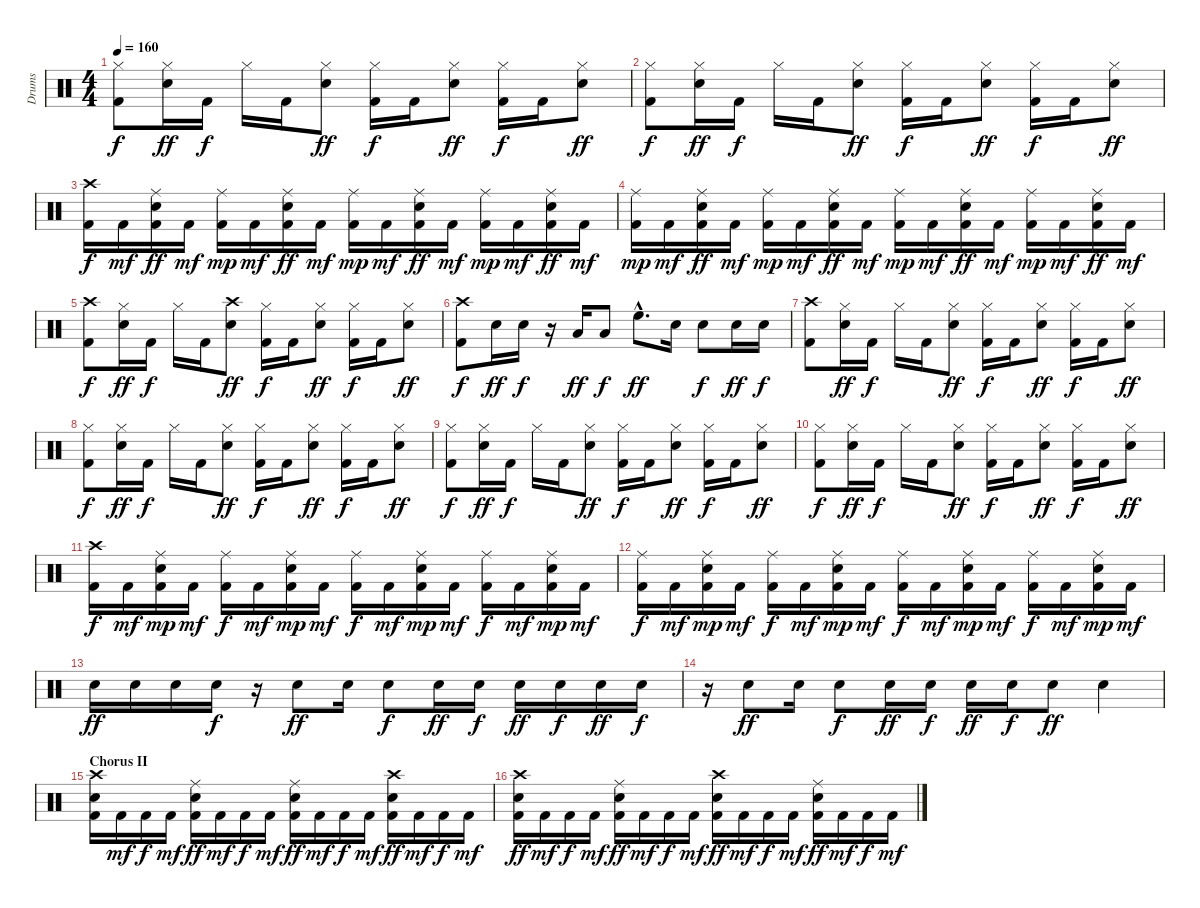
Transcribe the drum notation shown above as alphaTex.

\track ("Drums" "Drums") {instrument percussion}
\staff {score}
\articulation defaults
\ts (4 4)
\tempo 160
\clef neutral
\ks c
("Hi-Hat (closed)" "Kick (hit) 2").8{dy f} ("Hi-Hat (closed)" "Snare (hit) 2").16{dy ff} "Kick (hit) 2".16{dy f} "Hi-Hat (closed)".16 "Kick (hit) 2".16 ("Hi-Hat (closed)" "Snare (hit) 2").8{dy ff} ("Hi-Hat (closed)" "Kick (hit) 2").16{dy f} "Kick (hit) 2".16 ("Hi-Hat (closed)" "Snare (hit) 2").8{dy ff} ("Hi-Hat (closed)" "Kick (hit) 2").16{dy f} "Kick (hit) 2".16 ("Hi-Hat (closed)" "Snare (hit) 2").8{dy ff} |
("Hi-Hat (closed)" "Kick (hit) 2").8{dy f} ("Hi-Hat (closed)" "Snare (hit) 2").16{dy ff} "Kick (hit) 2".16{dy f} "Hi-Hat (closed)".16 "Kick (hit) 2".16 ("Hi-Hat (closed)" "Snare (hit) 2").8{dy ff} ("Hi-Hat (closed)" "Kick (hit) 2").16{dy f} "Kick (hit) 2".16 ("Hi-Hat (closed)" "Snare (hit) 2").8{dy ff} ("Hi-Hat (closed)" "Kick (hit) 2").16{dy f} "Kick (hit) 2".16 ("Hi-Hat (closed)" "Snare (hit) 2").8{dy ff} |
("Crash high (hit)" "Kick (hit) 2").16{dy f} "Kick (hit) 2".16{dy mf} ("Snare (hit) 2" "Ride (middle)" "Kick (hit) 2").16{dy ff} "Kick (hit) 2".16{dy mf} ("Ride (middle)" "Kick (hit) 2").16{dy mp} "Kick (hit) 2".16{dy mf} ("Snare (hit) 2" "Ride (middle)" "Kick (hit) 2").16{dy ff} "Kick (hit) 2".16{dy mf} ("Ride (middle)" "Kick (hit) 2").16{dy mp} "Kick (hit) 2".16{dy mf} ("Snare (hit) 2" "Ride (middle)" "Kick (hit) 2").16{dy ff} "Kick (hit) 2".16{dy mf} ("Ride (middle)" "Kick (hit) 2").16{dy mp} "Kick (hit) 2".16{dy mf} ("Snare (hit) 2" "Ride (middle)" "Kick (hit) 2").16{dy ff} "Kick (hit) 2".16{dy mf} |
("Ride (middle)" "Kick (hit) 2").16{dy mp} "Kick (hit) 2".16{dy mf} ("Snare (hit) 2" "Ride (middle)" "Kick (hit) 2").16{dy ff} "Kick (hit) 2".16{dy mf} ("Ride (middle)" "Kick (hit) 2").16{dy mp} "Kick (hit) 2".16{dy mf} ("Snare (hit) 2" "Ride (middle)" "Kick (hit) 2").16{dy ff} "Kick (hit) 2".16{dy mf} ("Ride (middle)" "Kick (hit) 2").16{dy mp} "Kick (hit) 2".16{dy mf} ("Snare (hit) 2" "Ride (middle)" "Kick (hit) 2").16{dy ff} "Kick (hit) 2".16{dy mf} ("Ride (middle)" "Kick (hit) 2").16{dy mp} "Kick (hit) 2".16{dy mf} ("Snare (hit) 2" "Ride (middle)" "Kick (hit) 2").16{dy ff} "Kick (hit) 2".16{dy mf} |
("Crash high (hit)" "Kick (hit) 2").8{dy f} ("Hi-Hat (closed)" "Snare (hit) 2").16{dy ff} "Kick (hit) 2".16{dy f} "Hi-Hat (closed)".16 "Kick (hit) 2".16 ("Crash high (hit)" "Snare (hit) 2").8{dy ff} ("Hi-Hat (closed)" "Kick (hit) 2").16{dy f} "Kick (hit) 2".16 ("Hi-Hat (closed)" "Snare (hit) 2").8{dy ff} ("Hi-Hat (closed)" "Kick (hit) 2").16{dy f} "Kick (hit) 2".16 ("Hi-Hat (closed)" "Snare (hit) 2").8{dy ff} |
("Crash high (hit)" "Kick (hit) 2").8{dy f} "Snare (hit) 2".16{dy ff} "Snare (hit) 2".16{dy f} r.16 "Low Tom (hit)".16{dy ff} "Low Tom (hit)".8{dy f} "High Floor Tom (hit)"{hac}.8{d dy ff} "Snare (hit) 2".16 "Snare (hit) 2".8{dy f} "Snare (hit) 2".16{dy ff} "Snare (hit) 2".16{dy f} |
("Crash high (hit)" "Kick (hit) 2").8 ("Hi-Hat (closed)" "Snare (hit) 2").16{dy ff} "Kick (hit) 2".16{dy f} "Hi-Hat (closed)".16 "Kick (hit) 2".16 ("Hi-Hat (closed)" "Snare (hit) 2").8{dy ff} ("Hi-Hat (closed)" "Kick (hit) 2").16{dy f} "Kick (hit) 2".16 ("Hi-Hat (closed)" "Snare (hit) 2").8{dy ff} ("Hi-Hat (closed)" "Kick (hit) 2").16{dy f} "Kick (hit) 2".16 ("Hi-Hat (closed)" "Snare (hit) 2").8{dy ff} |
("Hi-Hat (closed)" "Kick (hit) 2").8{dy f} ("Hi-Hat (closed)" "Snare (hit) 2").16{dy ff} "Kick (hit) 2".16{dy f} "Hi-Hat (closed)".16 "Kick (hit) 2".16 ("Hi-Hat (closed)" "Snare (hit) 2").8{dy ff} ("Hi-Hat (closed)" "Kick (hit) 2").16{dy f} "Kick (hit) 2".16 ("Hi-Hat (closed)" "Snare (hit) 2").8{dy ff} ("Hi-Hat (closed)" "Kick (hit) 2").16{dy f} "Kick (hit) 2".16 ("Hi-Hat (closed)" "Snare (hit) 2").8{dy ff} |
("Hi-Hat (closed)" "Kick (hit) 2").8{dy f} ("Hi-Hat (closed)" "Snare (hit) 2").16{dy ff} "Kick (hit) 2".16{dy f} "Hi-Hat (closed)".16 "Kick (hit) 2".16 ("Hi-Hat (closed)" "Snare (hit) 2").8{dy ff} ("Hi-Hat (closed)" "Kick (hit) 2").16{dy f} "Kick (hit) 2".16 ("Hi-Hat (closed)" "Snare (hit) 2").8{dy ff} ("Hi-Hat (closed)" "Kick (hit) 2").16{dy f} "Kick (hit) 2".16 ("Hi-Hat (closed)" "Snare (hit) 2").8{dy ff} |
("Hi-Hat (closed)" "Kick (hit) 2").8{dy f} ("Hi-Hat (closed)" "Snare (hit) 2").16{dy ff} "Kick (hit) 2".16{dy f} "Hi-Hat (closed)".16 "Kick (hit) 2".16 ("Hi-Hat (closed)" "Snare (hit) 2").8{dy ff} ("Hi-Hat (closed)" "Kick (hit) 2").16{dy f} "Kick (hit) 2".16 ("Hi-Hat (closed)" "Snare (hit) 2").8{dy ff} ("Hi-Hat (closed)" "Kick (hit) 2").16{dy f} "Kick (hit) 2".16 ("Hi-Hat (closed)" "Snare (hit) 2").8{dy ff} |
("Crash high (hit)" "Kick (hit) 2").16{dy f} "Kick (hit) 2".16{dy mf} ("Snare (hit) 2" "Ride (middle)" "Kick (hit) 2").16{dy mp} "Kick (hit) 2".16{dy mf} ("Ride (middle)" "Kick (hit) 2").16{dy f} "Kick (hit) 2".16{dy mf} ("Snare (hit) 2" "Ride (middle)" "Kick (hit) 2").16{dy mp} "Kick (hit) 2".16{dy mf} ("Ride (middle)" "Kick (hit) 2").16{dy f} "Kick (hit) 2".16{dy mf} ("Snare (hit) 2" "Ride (middle)" "Kick (hit) 2").16{dy mp} "Kick (hit) 2".16{dy mf} ("Ride (middle)" "Kick (hit) 2").16{dy f} "Kick (hit) 2".16{dy mf} ("Snare (hit) 2" "Ride (middle)" "Kick (hit) 2").16{dy mp} "Kick (hit) 2".16{dy mf} |
("Ride (middle)" "Kick (hit) 2").16{dy f} "Kick (hit) 2".16{dy mf} ("Snare (hit) 2" "Ride (middle)" "Kick (hit) 2").16{dy mp} "Kick (hit) 2".16{dy mf} ("Ride (middle)" "Kick (hit) 2").16{dy f} "Kick (hit) 2".16{dy mf} ("Snare (hit) 2" "Ride (middle)" "Kick (hit) 2").16{dy mp} "Kick (hit) 2".16{dy mf} ("Ride (middle)" "Kick (hit) 2").16{dy f} "Kick (hit) 2".16{dy mf} ("Snare (hit) 2" "Ride (middle)" "Kick (hit) 2").16{dy mp} "Kick (hit) 2".16{dy mf} ("Ride (middle)" "Kick (hit) 2").16{dy f} "Kick (hit) 2".16{dy mf} ("Snare (hit) 2" "Ride (middle)" "Kick (hit) 2").16{dy mp} "Kick (hit) 2".16{dy mf} |
"Snare (hit) 2".16{dy ff} "Snare (hit) 2".16 "Snare (hit) 2".16 "Snare (hit) 2".16{dy f} r.16 "Snare (hit) 2".8{dy ff} "Snare (hit) 2".16 "Snare (hit) 2".8{dy f} "Snare (hit) 2".16{dy ff} "Snare (hit) 2".16{dy f} "Snare (hit) 2".16{dy ff} "Snare (hit) 2".16{dy f} "Snare (hit) 2".16{dy ff} "Snare (hit) 2".16{dy f} |
r.16 "Snare (hit) 2".8{dy ff} "Snare (hit) 2".16 "Snare (hit) 2".8{dy f} "Snare (hit) 2".16{dy ff} "Snare (hit) 2".16{dy f} "Snare (hit) 2".16{dy ff} "Snare (hit) 2".16{dy f} "Snare (hit) 2".8{dy ff} "Snare (hit) 2".4 |
\section ("" "Chorus II")
("Snare (hit) 2" "Crash high (hit)" "Kick (hit) 2").16 "Kick (hit) 2".16{dy mf} "Kick (hit) 2".16{dy f} "Kick (hit) 2".16{dy mf} ("Snare (hit) 2" "Ride (middle)" "Kick (hit) 2").16{dy ff} "Kick (hit) 2".16{dy mf} "Kick (hit) 2".16{dy f} "Kick (hit) 2".16{dy mf} ("Snare (hit) 2" "Ride (middle)" "Kick (hit) 2").16{dy ff} "Kick (hit) 2".16{dy mf} "Kick (hit) 2".16{dy f} "Kick (hit) 2".16{dy mf} ("Snare (hit) 2" "Crash high (hit)" "Kick (hit) 2").16{dy ff} "Kick (hit) 2".16{dy mf} "Kick (hit) 2".16{dy f} "Kick (hit) 2".16{dy mf} |
("Snare (hit) 2" "Crash high (hit)" "Kick (hit) 2").16{dy ff} "Kick (hit) 2".16{dy mf} "Kick (hit) 2".16{dy f} "Kick (hit) 2".16{dy mf} ("Snare (hit) 2" "Ride (middle)" "Kick (hit) 2").16{dy ff} "Kick (hit) 2".16{dy mf} "Kick (hit) 2".16{dy f} "Kick (hit) 2".16{dy mf} ("Snare (hit) 2" "Crash high (hit)" "Kick (hit) 2").16{dy ff} "Kick (hit) 2".16{dy mf} "Kick (hit) 2".16{dy f} "Kick (hit) 2".16{dy mf} ("Snare (hit) 2" "Ride (middle)" "Kick (hit) 2").16{dy ff} "Kick (hit) 2".16{dy mf} "Kick (hit) 2".16{dy f} "Kick (hit) 2".16{dy mf}
